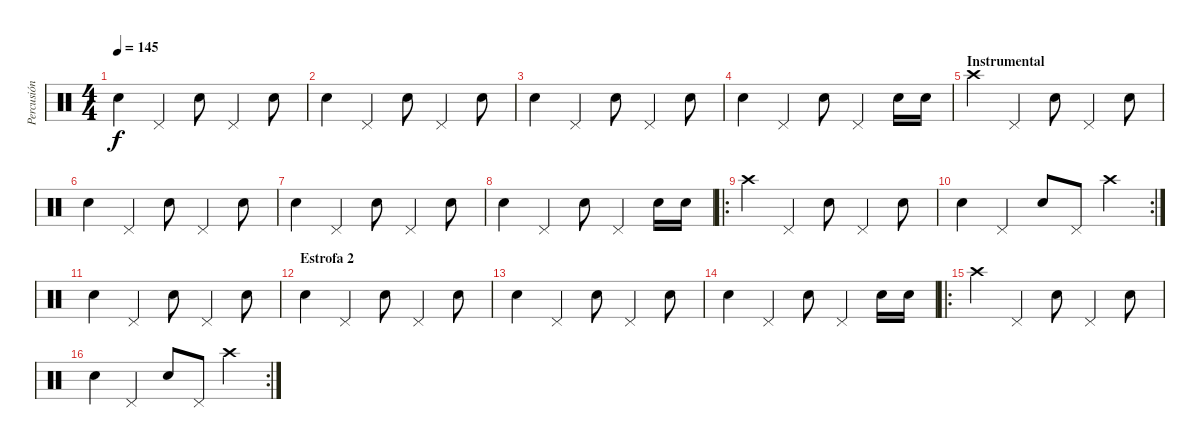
\track ("Percusión" "Percusión") {instrument percussion}
\staff {score}
\articulation defaults
\ts (4 4)
\tempo 145
\clef neutral
\ks c "Electric Snare (hit)".4{dy f} "Pedal Hi-Hat (hit)".4 "Electric Snare (hit)".8 "Pedal Hi-Hat (hit)".4 "Electric Snare (hit)".8
|
"Electric Snare (hit)".4 "Pedal Hi-Hat (hit)".4 "Electric Snare (hit)".8 "Pedal Hi-Hat (hit)".4 "Electric Snare (hit)".8 |
"Electric Snare (hit)".4 "Pedal Hi-Hat (hit)".4 "Electric Snare (hit)".8 "Pedal Hi-Hat (hit)".4 "Electric Snare (hit)".8 |
"Electric Snare (hit)".4 "Pedal Hi-Hat (hit)".4 "Electric Snare (hit)".8 "Pedal Hi-Hat (hit)".4 "Electric Snare (hit)".16 "Electric Snare (hit)".16 |
\section ("" "Instrumental")
"Crash high (hit)".4 "Pedal Hi-Hat (hit)".4 "Electric Snare (hit)".8 "Pedal Hi-Hat (hit)".4 "Electric Snare (hit)".8 |
"Electric Snare (hit)".4 "Pedal Hi-Hat (hit)".4 "Electric Snare (hit)".8 "Pedal Hi-Hat (hit)".4 "Electric Snare (hit)".8 |
"Electric Snare (hit)".4 "Pedal Hi-Hat (hit)".4 "Electric Snare (hit)".8 "Pedal Hi-Hat (hit)".4 "Electric Snare (hit)".8 |
"Electric Snare (hit)".4 "Pedal Hi-Hat (hit)".4 "Electric Snare (hit)".8 "Pedal Hi-Hat (hit)".4 "Electric Snare (hit)".16 "Electric Snare (hit)".16 |
\ro "Crash high (hit)".4 "Pedal Hi-Hat (hit)".4 "Electric Snare (hit)".8 "Pedal Hi-Hat (hit)".4 "Electric Snare (hit)".8
|
\rc 2 "Electric Snare (hit)".4 "Pedal Hi-Hat (hit)".4 "Electric Snare (hit)".8 "Pedal Hi-Hat (hit)".8 "Crash high (hit)".4
|
"Electric Snare (hit)".4 "Pedal Hi-Hat (hit)".4 "Electric Snare (hit)".8 "Pedal Hi-Hat (hit)".4 "Electric Snare (hit)".8 |
\section ("" "Estrofa 2")
"Electric Snare (hit)".4 "Pedal Hi-Hat (hit)".4 "Electric Snare (hit)".8 "Pedal Hi-Hat (hit)".4 "Electric Snare (hit)".8 |
"Electric Snare (hit)".4 "Pedal Hi-Hat (hit)".4 "Electric Snare (hit)".8 "Pedal Hi-Hat (hit)".4 "Electric Snare (hit)".8 |
"Electric Snare (hit)".4 "Pedal Hi-Hat (hit)".4 "Electric Snare (hit)".8 "Pedal Hi-Hat (hit)".4 "Electric Snare (hit)".16 "Electric Snare (hit)".16 |
\ro "Crash high (hit)".4 "Pedal Hi-Hat (hit)".4 "Electric Snare (hit)".8 "Pedal Hi-Hat (hit)".4 "Electric Snare (hit)".8
|
\rc 2 "Electric Snare (hit)".4 "Pedal Hi-Hat (hit)".4 "Electric Snare (hit)".8 "Pedal Hi-Hat (hit)".8 "Crash high (hit)".4
